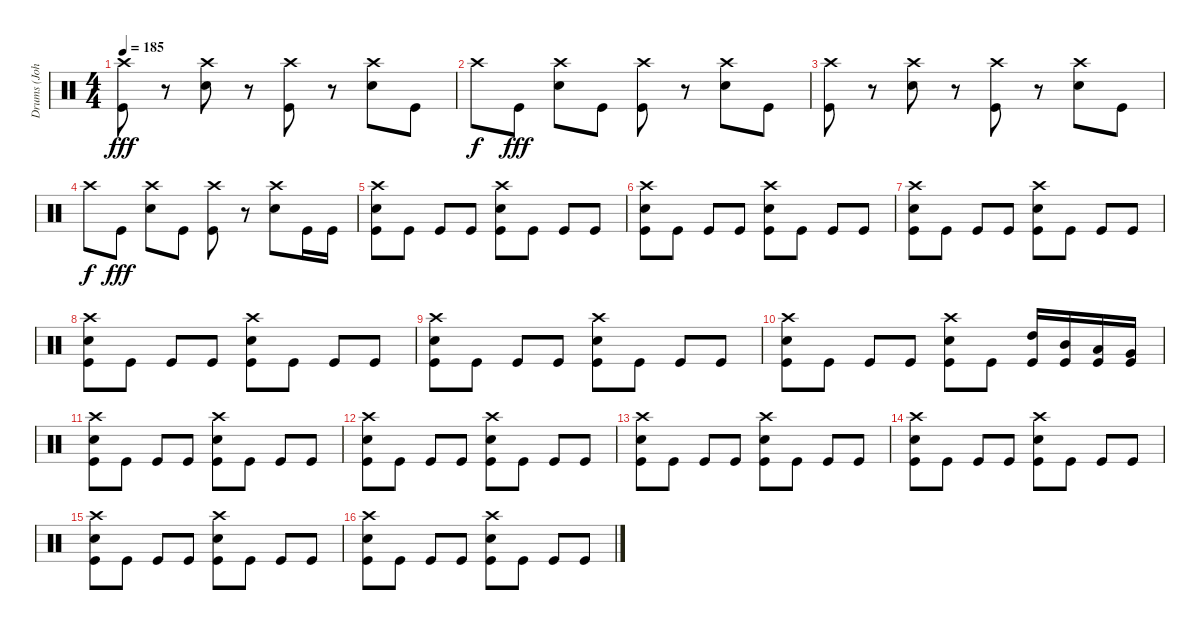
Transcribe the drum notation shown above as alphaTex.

\track ("Drums (John Bengtsson)" "Drums (Joh") {instrument percussion}
\staff {score}
\articulation defaults
\ts (4 4)
\tempo 185
\clef neutral
\ks c
("Crash high (hit)" "Kick (hit)").8{dy fff} r.8 ("Crash high (hit)" "Electric Snare (hit)").8 r.8 ("Crash high (hit)" "Kick (hit)").8 r.8 ("Crash high (hit)" "Electric Snare (hit)").8 "Kick (hit)".8 |
"Crash high (hit)".8{dy f} "Kick (hit)".8{dy fff} ("Crash high (hit)" "Electric Snare (hit)").8 "Kick (hit)".8 ("Crash high (hit)" "Kick (hit)").8 r.8 ("Crash high (hit)" "Electric Snare (hit)").8 "Kick (hit)".8 |
("Crash high (hit)" "Kick (hit)").8 r.8 ("Crash high (hit)" "Electric Snare (hit)").8 r.8 ("Crash high (hit)" "Kick (hit)").8 r.8 ("Crash high (hit)" "Electric Snare (hit)").8 "Kick (hit)".8 |
"Crash high (hit)".8{dy f} "Kick (hit)".8{dy fff} ("Crash high (hit)" "Electric Snare (hit)").8 "Kick (hit)".8 ("Crash high (hit)" "Kick (hit)").8 r.8 ("Crash high (hit)" "Electric Snare (hit)").8 "Kick (hit)".16 "Kick (hit)".16 |
("Crash high (hit)" "Electric Snare (hit)" "Kick (hit)").8 "Kick (hit)".8 "Kick (hit)".8 "Kick (hit)".8 ("Crash high (hit)" "Electric Snare (hit)" "Kick (hit)").8 "Kick (hit)".8 "Kick (hit)".8 "Kick (hit)".8 |
("Crash high (hit)" "Electric Snare (hit)" "Kick (hit)").8 "Kick (hit)".8 "Kick (hit)".8 "Kick (hit)".8 ("Crash high (hit)" "Electric Snare (hit)" "Kick (hit)").8 "Kick (hit)".8 "Kick (hit)".8 "Kick (hit)".8 |
("Crash high (hit)" "Electric Snare (hit)" "Kick (hit)").8 "Kick (hit)".8 "Kick (hit)".8 "Kick (hit)".8 ("Crash high (hit)" "Electric Snare (hit)" "Kick (hit)").8 "Kick (hit)".8 "Kick (hit)".8 "Kick (hit)".8 |
("Crash high (hit)" "Electric Snare (hit)" "Kick (hit)").8 "Kick (hit)".8 "Kick (hit)".8 "Kick (hit)".8 ("Crash high (hit)" "Electric Snare (hit)" "Kick (hit)").8 "Kick (hit)".8 "Kick (hit)".8 "Kick (hit)".8 |
("Crash high (hit)" "Electric Snare (hit)" "Kick (hit)").8 "Kick (hit)".8 "Kick (hit)".8 "Kick (hit)".8 ("Crash high (hit)" "Electric Snare (hit)" "Kick (hit)").8 "Kick (hit)".8 "Kick (hit)".8 "Kick (hit)".8 |
("Crash high (hit)" "Electric Snare (hit)" "Kick (hit)").8 "Kick (hit)".8 "Kick (hit)".8 "Kick (hit)".8 ("Crash high (hit)" "Electric Snare (hit)" "Kick (hit)").8 "Kick (hit)".8 ("High Tom (hit)" "Kick (hit)").16 ("Mid Tom (hit)" "Kick (hit)").16 ("Low Tom (hit)" "Kick (hit)").16 ("Very Low Tom (hit)" "Kick (hit)").16 |
("Crash high (hit)" "Electric Snare (hit)" "Kick (hit)").8 "Kick (hit)".8 "Kick (hit)".8 "Kick (hit)".8 ("Crash high (hit)" "Electric Snare (hit)" "Kick (hit)").8 "Kick (hit)".8 "Kick (hit)".8 "Kick (hit)".8 |
("Crash high (hit)" "Electric Snare (hit)" "Kick (hit)").8 "Kick (hit)".8 "Kick (hit)".8 "Kick (hit)".8 ("Crash high (hit)" "Electric Snare (hit)" "Kick (hit)").8 "Kick (hit)".8 "Kick (hit)".8 "Kick (hit)".8 |
("Crash high (hit)" "Electric Snare (hit)" "Kick (hit)").8 "Kick (hit)".8 "Kick (hit)".8 "Kick (hit)".8 ("Crash high (hit)" "Electric Snare (hit)" "Kick (hit)").8 "Kick (hit)".8 "Kick (hit)".8 "Kick (hit)".8 |
("Crash high (hit)" "Electric Snare (hit)" "Kick (hit)").8 "Kick (hit)".8 "Kick (hit)".8 "Kick (hit)".8 ("Crash high (hit)" "Electric Snare (hit)" "Kick (hit)").8 "Kick (hit)".8 "Kick (hit)".8 "Kick (hit)".8 |
("Crash high (hit)" "Electric Snare (hit)" "Kick (hit)").8 "Kick (hit)".8 "Kick (hit)".8 "Kick (hit)".8 ("Crash high (hit)" "Electric Snare (hit)" "Kick (hit)").8 "Kick (hit)".8 "Kick (hit)".8 "Kick (hit)".8 |
("Crash high (hit)" "Electric Snare (hit)" "Kick (hit)").8 "Kick (hit)".8 "Kick (hit)".8 "Kick (hit)".8 ("Crash high (hit)" "Electric Snare (hit)" "Kick (hit)").8 "Kick (hit)".8 "Kick (hit)".8 "Kick (hit)".8
